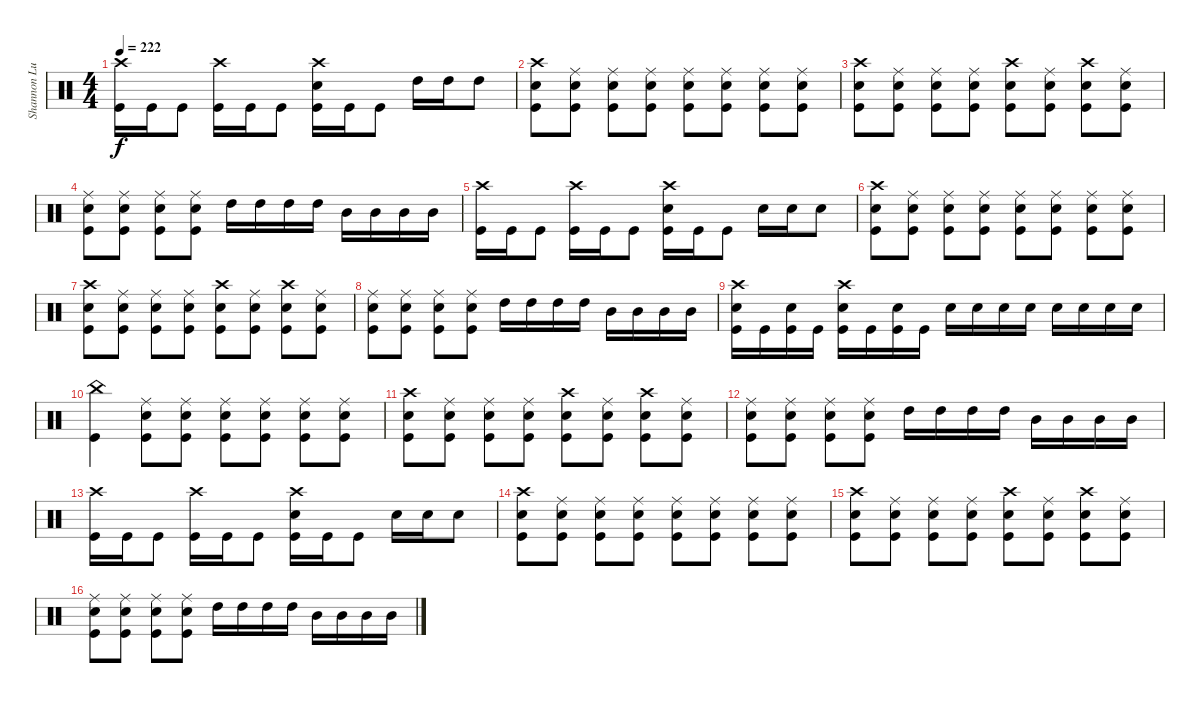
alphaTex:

\track ("Shannon Lucas" "Shannon Lu") {instrument percussion}
\staff {score}
\articulation defaults
\ts (4 4)
\tempo 222
\clef neutral
\ks c
("Crash high (hit)" "Kick (hit)").16{dy f} "Kick (hit)".16 "Kick (hit)".8 ("Crash high (hit)" "Kick (hit)").16 "Kick (hit)".16 "Kick (hit)".8 ("Crash high (hit)" "Snare (hit) 2" "Kick (hit)").16 "Kick (hit)".16 "Kick (hit)".8 "High Tom (hit)".16 "High Tom (hit)".16 "High Tom (hit)".8 |
("Crash high (hit)" "Snare (hit) 2" "Kick (hit)").8 ("Ride (middle)" "Snare (hit) 2" "Kick (hit)").8 ("Ride (middle)" "Snare (hit) 2" "Kick (hit)").8 ("Ride (middle)" "Snare (hit) 2" "Kick (hit)").8 ("Ride (middle)" "Snare (hit) 2" "Kick (hit)").8 ("Ride (middle)" "Snare (hit) 2" "Kick (hit)").8 ("Ride (middle)" "Snare (hit) 2" "Kick (hit)").8 ("Ride (middle)" "Snare (hit) 2" "Kick (hit)").8 |
("Crash high (hit)" "Snare (hit) 2" "Kick (hit)").8 ("Ride (middle)" "Snare (hit) 2" "Kick (hit)").8 ("Ride (middle)" "Snare (hit) 2" "Kick (hit)").8 ("Ride (middle)" "Snare (hit) 2" "Kick (hit)").8 ("Crash high (hit)" "Snare (hit) 2" "Kick (hit)").8 ("Ride (middle)" "Snare (hit) 2" "Kick (hit)").8 ("Crash high (hit)" "Snare (hit) 2" "Kick (hit)").8 ("Ride (middle)" "Snare (hit) 2" "Kick (hit)").8 |
("Ride (middle)" "Snare (hit) 2" "Kick (hit)").8 ("Ride (middle)" "Snare (hit) 2" "Kick (hit)").8 ("Ride (middle)" "Snare (hit) 2" "Kick (hit)").8 ("Ride (middle)" "Snare (hit) 2" "Kick (hit)").8 "High Tom (hit)".16 "High Tom (hit)".16 "High Tom (hit)".16 "High Tom (hit)".16 "Mid Tom (hit)".16 "Mid Tom (hit)".16 "Mid Tom (hit)".16 "Mid Tom (hit)".16 |
("Crash high (hit)" "Kick (hit)").16 "Kick (hit)".16 "Kick (hit)".8 ("Crash high (hit)" "Kick (hit)").16 "Kick (hit)".16 "Kick (hit)".8 ("Crash high (hit)" "Snare (hit) 2" "Kick (hit)").16 "Kick (hit)".16 "Kick (hit)".8 "Snare (hit) 2".16 "Snare (hit) 2".16 "Snare (hit) 2".8 |
("Crash high (hit)" "Snare (hit) 2" "Kick (hit)").8 ("Ride (middle)" "Snare (hit) 2" "Kick (hit)").8 ("Ride (middle)" "Snare (hit) 2" "Kick (hit)").8 ("Ride (middle)" "Snare (hit) 2" "Kick (hit)").8 ("Ride (middle)" "Snare (hit) 2" "Kick (hit)").8 ("Ride (middle)" "Snare (hit) 2" "Kick (hit)").8 ("Ride (middle)" "Snare (hit) 2" "Kick (hit)").8 ("Ride (middle)" "Snare (hit) 2" "Kick (hit)").8 |
("Crash high (hit)" "Snare (hit) 2" "Kick (hit)").8 ("Ride (middle)" "Snare (hit) 2" "Kick (hit)").8 ("Ride (middle)" "Snare (hit) 2" "Kick (hit)").8 ("Ride (middle)" "Snare (hit) 2" "Kick (hit)").8 ("Crash high (hit)" "Snare (hit) 2" "Kick (hit)").8 ("Ride (middle)" "Snare (hit) 2" "Kick (hit)").8 ("Crash high (hit)" "Snare (hit) 2" "Kick (hit)").8 ("Ride (middle)" "Snare (hit) 2" "Kick (hit)").8 |
("Ride (middle)" "Snare (hit) 2" "Kick (hit)").8 ("Ride (middle)" "Snare (hit) 2" "Kick (hit)").8 ("Ride (middle)" "Snare (hit) 2" "Kick (hit)").8 ("Ride (middle)" "Snare (hit) 2" "Kick (hit)").8 "High Tom (hit)".16 "High Tom (hit)".16 "High Tom (hit)".16 "High Tom (hit)".16 "Mid Tom (hit)".16 "Mid Tom (hit)".16 "Mid Tom (hit)".16 "Mid Tom (hit)".16 |
("Crash high (hit)" "Snare (hit) 2" "Kick (hit)").16 "Kick (hit)".16 ("Snare (hit) 2" "Kick (hit)").16 "Kick (hit)".16 ("Crash high (hit)" "Snare (hit) 2" "Kick (hit)").16 "Kick (hit)".16 ("Snare (hit) 2" "Kick (hit)").16 "Kick (hit)".16 "Snare (hit) 2".16 "Snare (hit) 2".16 "Snare (hit) 2".16 "Snare (hit) 2".16 "Snare (hit) 2".16 "Snare (hit) 2".16 "Snare (hit) 2".16 "Snare (hit) 2".16 |
("China (hit)" "Kick (hit)").4 ("Ride (middle)" "Snare (hit) 2" "Kick (hit)").8 ("Ride (middle)" "Snare (hit) 2" "Kick (hit)").8 ("Ride (middle)" "Snare (hit) 2" "Kick (hit)").8 ("Ride (middle)" "Snare (hit) 2" "Kick (hit)").8 ("Ride (middle)" "Snare (hit) 2" "Kick (hit)").8 ("Ride (middle)" "Snare (hit) 2" "Kick (hit)").8 |
("Crash high (hit)" "Snare (hit) 2" "Kick (hit)").8 ("Ride (middle)" "Snare (hit) 2" "Kick (hit)").8 ("Ride (middle)" "Snare (hit) 2" "Kick (hit)").8 ("Ride (middle)" "Snare (hit) 2" "Kick (hit)").8 ("Crash high (hit)" "Snare (hit) 2" "Kick (hit)").8 ("Ride (middle)" "Snare (hit) 2" "Kick (hit)").8 ("Crash high (hit)" "Snare (hit) 2" "Kick (hit)").8 ("Ride (middle)" "Snare (hit) 2" "Kick (hit)").8 |
("Ride (middle)" "Snare (hit) 2" "Kick (hit)").8 ("Ride (middle)" "Snare (hit) 2" "Kick (hit)").8 ("Ride (middle)" "Snare (hit) 2" "Kick (hit)").8 ("Ride (middle)" "Snare (hit) 2" "Kick (hit)").8 "High Tom (hit)".16 "High Tom (hit)".16 "High Tom (hit)".16 "High Tom (hit)".16 "Mid Tom (hit)".16 "Mid Tom (hit)".16 "Mid Tom (hit)".16 "Mid Tom (hit)".16 |
("Crash high (hit)" "Kick (hit)").16 "Kick (hit)".16 "Kick (hit)".8 ("Crash high (hit)" "Kick (hit)").16 "Kick (hit)".16 "Kick (hit)".8 ("Crash high (hit)" "Snare (hit) 2" "Kick (hit)").16 "Kick (hit)".16 "Kick (hit)".8 "Snare (hit) 2".16 "Snare (hit) 2".16 "Snare (hit) 2".8 |
("Crash high (hit)" "Snare (hit) 2" "Kick (hit)").8 ("Ride (middle)" "Snare (hit) 2" "Kick (hit)").8 ("Ride (middle)" "Snare (hit) 2" "Kick (hit)").8 ("Ride (middle)" "Snare (hit) 2" "Kick (hit)").8 ("Ride (middle)" "Snare (hit) 2" "Kick (hit)").8 ("Ride (middle)" "Snare (hit) 2" "Kick (hit)").8 ("Ride (middle)" "Snare (hit) 2" "Kick (hit)").8 ("Ride (middle)" "Snare (hit) 2" "Kick (hit)").8 |
("Crash high (hit)" "Snare (hit) 2" "Kick (hit)").8 ("Ride (middle)" "Snare (hit) 2" "Kick (hit)").8 ("Ride (middle)" "Snare (hit) 2" "Kick (hit)").8 ("Ride (middle)" "Snare (hit) 2" "Kick (hit)").8 ("Crash high (hit)" "Snare (hit) 2" "Kick (hit)").8 ("Ride (middle)" "Snare (hit) 2" "Kick (hit)").8 ("Crash high (hit)" "Snare (hit) 2" "Kick (hit)").8 ("Ride (middle)" "Snare (hit) 2" "Kick (hit)").8 |
("Ride (middle)" "Snare (hit) 2" "Kick (hit)").8 ("Ride (middle)" "Snare (hit) 2" "Kick (hit)").8 ("Ride (middle)" "Snare (hit) 2" "Kick (hit)").8 ("Ride (middle)" "Snare (hit) 2" "Kick (hit)").8 "High Tom (hit)".16 "High Tom (hit)".16 "High Tom (hit)".16 "High Tom (hit)".16 "Mid Tom (hit)".16 "Mid Tom (hit)".16 "Mid Tom (hit)".16 "Mid Tom (hit)".16
